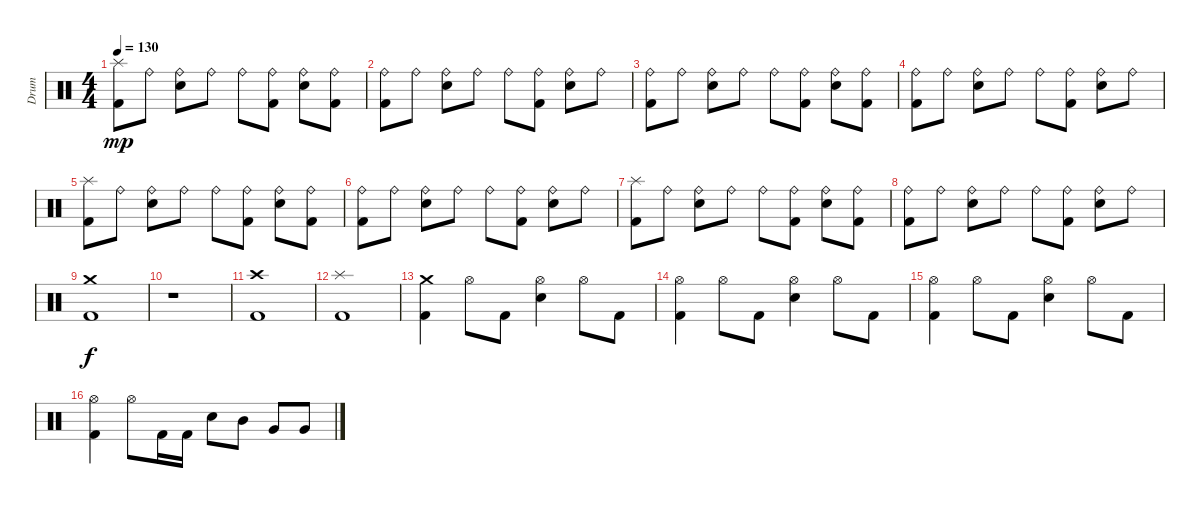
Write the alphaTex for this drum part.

\track ("Drum" "Drum") {instrument percussion}
\staff {score}
\articulation defaults
\ts (4 4)
\tempo 130
\clef neutral
\ks c
("Splash (hit)" "Kick (hit) 2").8{dy mp} "Ride (bell)".8 ("Ride (bell)" "Electric Snare (hit)").8 "Ride (bell)".8 "Ride (bell)".8 ("Ride (bell)" "Kick (hit) 2").8 ("Ride (bell)" "Electric Snare (hit)").8 ("Ride (bell)" "Kick (hit) 2").8 |
("Ride (bell)" "Kick (hit) 2").8 "Ride (bell)".8 ("Ride (bell)" "Electric Snare (hit)").8 "Ride (bell)".8 "Ride (bell)".8 ("Ride (bell)" "Kick (hit) 2").8 ("Ride (bell)" "Electric Snare (hit)").8 "Ride (bell)".8 |
("Ride (bell)" "Kick (hit) 2").8 "Ride (bell)".8 ("Ride (bell)" "Electric Snare (hit)").8 "Ride (bell)".8 "Ride (bell)".8 ("Ride (bell)" "Kick (hit) 2").8 ("Ride (bell)" "Electric Snare (hit)").8 ("Ride (bell)" "Kick (hit) 2").8 |
("Ride (bell)" "Kick (hit) 2").8 "Ride (bell)".8 ("Ride (bell)" "Electric Snare (hit)").8 "Ride (bell)".8 "Ride (bell)".8 ("Ride (bell)" "Kick (hit) 2").8 ("Ride (bell)" "Electric Snare (hit)").8 "Ride (bell)".8 |
("Splash (hit)" "Kick (hit) 2").8 "Ride (bell)".8 ("Ride (bell)" "Electric Snare (hit)").8 "Ride (bell)".8 "Ride (bell)".8 ("Ride (bell)" "Kick (hit) 2").8 ("Ride (bell)" "Electric Snare (hit)").8 ("Ride (bell)" "Kick (hit) 2").8 |
("Ride (bell)" "Kick (hit) 2").8 "Ride (bell)".8 ("Ride (bell)" "Electric Snare (hit)").8 "Ride (bell)".8 "Ride (bell)".8 ("Ride (bell)" "Kick (hit) 2").8 ("Ride (bell)" "Electric Snare (hit)").8 "Ride (bell)".8 |
("Splash (hit)" "Kick (hit) 2").8 "Ride (bell)".8 ("Ride (bell)" "Electric Snare (hit)").8 "Ride (bell)".8 "Ride (bell)".8 ("Ride (bell)" "Kick (hit) 2").8 ("Ride (bell)" "Electric Snare (hit)").8 ("Ride (bell)" "Kick (hit) 2").8 |
("Ride (bell)" "Kick (hit) 2").8 "Ride (bell)".8 ("Ride (bell)" "Electric Snare (hit)").8 "Ride (bell)".8 "Ride (bell)".8 ("Ride (bell)" "Kick (hit) 2").8 ("Ride (bell)" "Electric Snare (hit)").8 "Ride (bell)".8 |
("Crash medium (hit)" "Kick (hit) 2").1{dy f} |
r.1 |
("Crash high (hit)" "Kick (hit) 2").1 |
("Kick (hit) 2" "Splash (hit)").1 |
("Crash medium (hit)" "Kick (hit) 2").4 "Hi-Hat (open)".8 "Kick (hit) 2".8 ("Hi-Hat (open)" "Electric Snare (hit)").4 "Hi-Hat (open)".8 "Kick (hit) 2".8 |
("Hi-Hat (open)" "Kick (hit) 2").4 "Hi-Hat (open)".8 "Kick (hit) 2".8 ("Hi-Hat (open)" "Electric Snare (hit)").4 "Hi-Hat (open)".8 "Kick (hit) 2".8 |
("Hi-Hat (open)" "Kick (hit) 2").4 "Hi-Hat (open)".8 "Kick (hit) 2".8 ("Hi-Hat (open)" "Electric Snare (hit)").4 "Hi-Hat (open)".8 "Kick (hit) 2".8 |
("Hi-Hat (open)" "Kick (hit) 2").4 "Hi-Hat (open)".8 "Kick (hit) 2".16 "Kick (hit) 2".16 "Electric Snare (hit)".8 "Mid Tom (hit)".8 "Very Low Tom (hit)".8 "Very Low Tom (hit)".8
